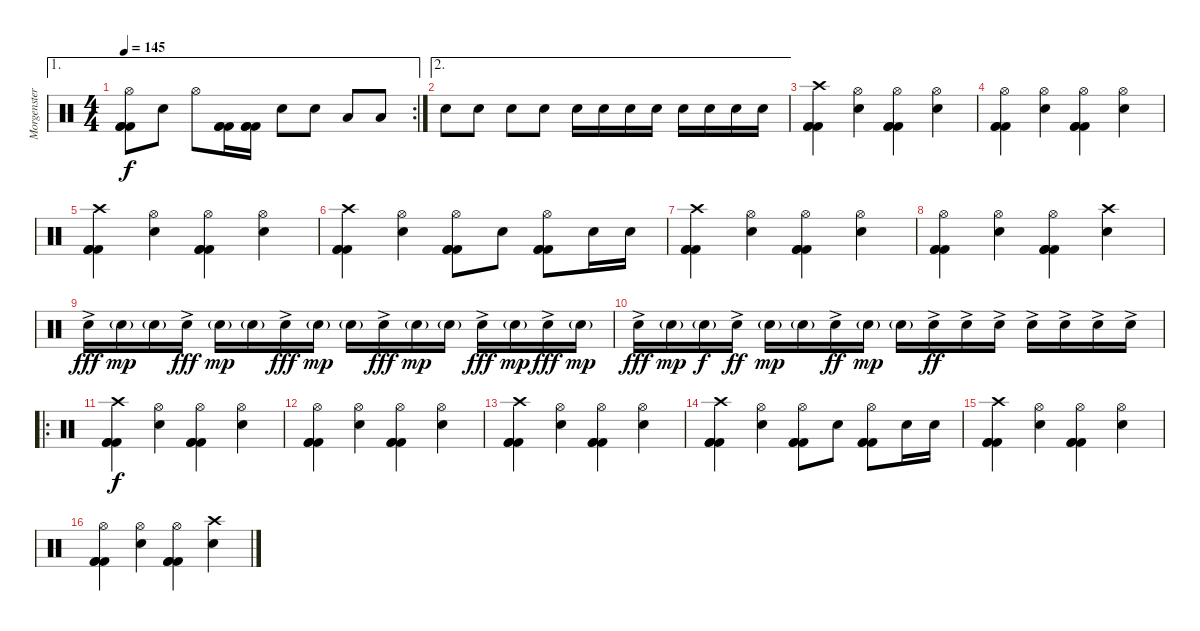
\track ("Morgenstern (Schlagzeug)" "Morgenster") {instrument percussion}
\staff {score}
\articulation defaults
\ae 1
\rc 2
\ts (4 4)
\tempo 145
\clef neutral
\ks c
("Hi-Hat (open)" "Kick (hit) 2" "Kick (hit) 2" "Kick (hit) 2").8{dy f} "Snare (hit) 2".8 "Hi-Hat (open)".8 ("Kick (hit) 2" "Kick (hit) 2" "Kick (hit) 2").16 ("Kick (hit) 2" "Kick (hit) 2" "Kick (hit) 2").16 "Snare (hit) 2".8 "Snare (hit) 2".8 "Low Tom (hit)".8 "Low Tom (hit)".8 |
\ae 2 "Snare (hit) 2".8 "Snare (hit) 2".8 "Snare (hit) 2".8 "Snare (hit) 2".8 "Snare (hit) 2".16 "Snare (hit) 2".16 "Snare (hit) 2".16 "Snare (hit) 2".16 "Snare (hit) 2".16 "Snare (hit) 2".16 "Snare (hit) 2".16 "Snare (hit) 2".16
|
("Crash high (hit)" "Kick (hit) 2" "Kick (hit) 2" "Kick (hit) 2").4 ("Hi-Hat (open)" "Snare (hit) 2").4 ("Hi-Hat (open)" "Kick (hit) 2" "Kick (hit) 2" "Kick (hit) 2").4 ("Hi-Hat (open)" "Snare (hit) 2").4 |
("Hi-Hat (open)" "Kick (hit) 2" "Kick (hit) 2" "Kick (hit) 2").4 ("Hi-Hat (open)" "Snare (hit) 2").4 ("Hi-Hat (open)" "Kick (hit) 2" "Kick (hit) 2" "Kick (hit) 2").4 ("Hi-Hat (open)" "Snare (hit) 2").4 |
("Crash high (hit)" "Kick (hit) 2" "Kick (hit) 2" "Kick (hit) 2").4 ("Hi-Hat (open)" "Snare (hit) 2").4 ("Hi-Hat (open)" "Kick (hit) 2" "Kick (hit) 2" "Kick (hit) 2").4 ("Hi-Hat (open)" "Snare (hit) 2").4 |
("Crash high (hit)" "Kick (hit) 2" "Kick (hit) 2" "Kick (hit) 2").4 ("Hi-Hat (open)" "Snare (hit) 2").4 ("Hi-Hat (open)" "Kick (hit) 2" "Kick (hit) 2" "Kick (hit) 2").8 "Snare (hit) 2".8 ("Hi-Hat (open)" "Kick (hit) 2" "Kick (hit) 2" "Kick (hit) 2").8 "Snare (hit) 2".16 "Snare (hit) 2".16 |
("Crash high (hit)" "Kick (hit) 2" "Kick (hit) 2" "Kick (hit) 2").4 ("Hi-Hat (open)" "Snare (hit) 2").4 ("Hi-Hat (open)" "Kick (hit) 2" "Kick (hit) 2" "Kick (hit) 2").4 ("Hi-Hat (open)" "Snare (hit) 2").4 |
("Hi-Hat (open)" "Kick (hit) 2" "Kick (hit) 2" "Kick (hit) 2").4 ("Hi-Hat (open)" "Snare (hit) 2").4 ("Hi-Hat (open)" "Kick (hit) 2" "Kick (hit) 2" "Kick (hit) 2").4 ("Crash high (hit)" "Snare (hit) 2").4 |
"Snare (hit) 2"{ac}.16{dy fff} "Snare (hit) 2"{g}.16{dy mp} "Snare (hit) 2"{g}.16 "Snare (hit) 2"{ac}.16{dy fff} "Snare (hit) 2"{g}.16{dy mp} "Snare (hit) 2"{g}.16 "Snare (hit) 2"{ac}.16{dy fff} "Snare (hit) 2"{g}.16{dy mp} "Snare (hit) 2"{g}.16 "Snare (hit) 2"{ac}.16{dy fff} "Snare (hit) 2"{g}.16{dy mp} "Snare (hit) 2"{g}.16 "Snare (hit) 2"{ac}.16{dy fff} "Snare (hit) 2"{g}.16{dy mp} "Snare (hit) 2"{ac}.16{dy fff} "Snare (hit) 2"{g}.16{dy mp} |
"Snare (hit) 2"{ac}.16{dy fff} "Snare (hit) 2"{g}.16{dy mp} "Snare (hit) 2"{g}.16{dy f} "Snare (hit) 2"{ac}.16{dy ff} "Snare (hit) 2"{g}.16{dy mp} "Snare (hit) 2"{g}.16 "Snare (hit) 2"{ac}.16{dy ff} "Snare (hit) 2"{g}.16{dy mp} "Snare (hit) 2"{g}.16 "Snare (hit) 2"{ac}.16{dy ff} "Snare (hit) 2"{ac}.16 "Snare (hit) 2"{ac}.16 "Snare (hit) 2"{ac}.16 "Snare (hit) 2"{ac}.16 "Snare (hit) 2"{ac}.16 "Snare (hit) 2"{ac}.16 |
\ro
("Crash high (hit)" "Kick (hit) 2" "Kick (hit) 2" "Kick (hit) 2").4{dy f} ("Hi-Hat (open)" "Snare (hit) 2").4 ("Hi-Hat (open)" "Kick (hit) 2" "Kick (hit) 2" "Kick (hit) 2").4 ("Hi-Hat (open)" "Snare (hit) 2").4 |
("Hi-Hat (open)" "Kick (hit) 2" "Kick (hit) 2" "Kick (hit) 2").4 ("Hi-Hat (open)" "Snare (hit) 2").4 ("Hi-Hat (open)" "Kick (hit) 2" "Kick (hit) 2" "Kick (hit) 2").4 ("Hi-Hat (open)" "Snare (hit) 2").4 |
("Crash high (hit)" "Kick (hit) 2" "Kick (hit) 2" "Kick (hit) 2").4 ("Hi-Hat (open)" "Snare (hit) 2").4 ("Hi-Hat (open)" "Kick (hit) 2" "Kick (hit) 2" "Kick (hit) 2").4 ("Hi-Hat (open)" "Snare (hit) 2").4 |
("Crash high (hit)" "Kick (hit) 2" "Kick (hit) 2" "Kick (hit) 2").4 ("Hi-Hat (open)" "Snare (hit) 2").4 ("Hi-Hat (open)" "Kick (hit) 2" "Kick (hit) 2" "Kick (hit) 2").8 "Snare (hit) 2".8 ("Hi-Hat (open)" "Kick (hit) 2" "Kick (hit) 2" "Kick (hit) 2").8 "Snare (hit) 2".16 "Snare (hit) 2".16 |
("Crash high (hit)" "Kick (hit) 2" "Kick (hit) 2" "Kick (hit) 2").4 ("Hi-Hat (open)" "Snare (hit) 2").4 ("Hi-Hat (open)" "Kick (hit) 2" "Kick (hit) 2" "Kick (hit) 2").4 ("Hi-Hat (open)" "Snare (hit) 2").4 |
("Hi-Hat (open)" "Kick (hit) 2" "Kick (hit) 2" "Kick (hit) 2").4 ("Hi-Hat (open)" "Snare (hit) 2").4 ("Hi-Hat (open)" "Kick (hit) 2" "Kick (hit) 2" "Kick (hit) 2").4 ("Crash high (hit)" "Snare (hit) 2").4
